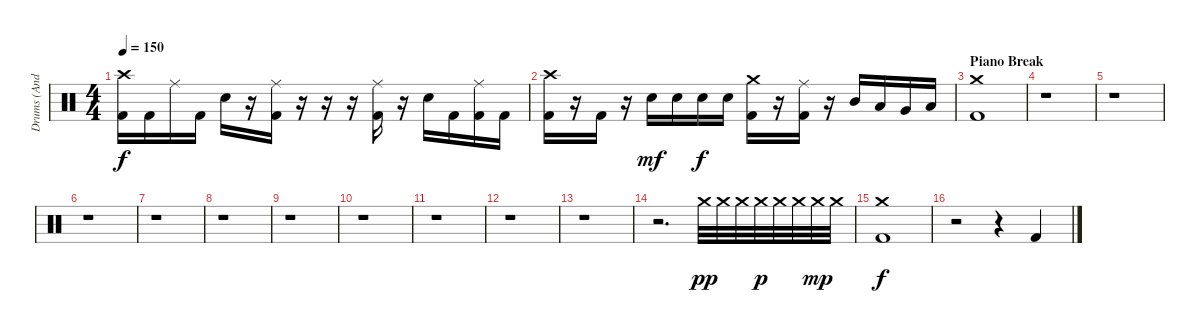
\track ("Drums (Andy C)" "Drums (And") {instrument percussion}
\staff {score}
\articulation defaults
\ts (4 4)
\tempo 150
\clef neutral
\ks c
("Crash high (hit)" "Kick (hit) 2").16{dy f} "Kick (hit) 2".16 "Ride (middle)".16 "Kick (hit) 2".16 "Electric Snare (hit)".16 r.16 ("Ride (middle)" "Kick (hit) 2").16 r.16 r.16 r.16 ("Ride (middle)" "Kick (hit) 2").16 r.16 "Electric Snare (hit)".16 "Kick (hit) 2".16 ("Ride (middle)" "Kick (hit) 2").16 "Kick (hit) 2".16 |
("Crash high (hit)" "Kick (hit) 2").16 r.16 "Kick (hit) 2".16 r.16 "Electric Snare (hit)".16{dy mf} "Electric Snare (hit)".16 "Electric Snare (hit)".16{dy f} "Electric Snare (hit)".16 ("Crash medium (hit)" "Kick (hit) 2").16 r.16 ("Ride (middle)" "Kick (hit) 2").16 r.16 "Mid Tom (hit)".16 "Low Tom (hit)".16 "Very Low Tom (hit)".16 "Low Floor Tom (hit)".16 |
\section ("" "Piano Break")
("Crash medium (hit)" "Kick (hit) 2").1 |
r.1 |
r.1 |
r.1 |
r.1 |
r.1 |
r.1 |
r.1 |
r.1 |
r.1 |
r.1 |
r.2{d} "Crash medium (hit)".32{dy pp} "Crash medium (hit)".32 "Crash medium (hit)".32 "Crash medium (hit)".32{dy p} "Crash medium (hit)".32 "Crash medium (hit)".32 "Crash medium (hit)".32{dy mp} "Crash medium (hit)".32 |
("Crash medium (hit)" "Kick (hit) 2").1{dy f} |
r.2 r.4 "Kick (hit) 2".4
